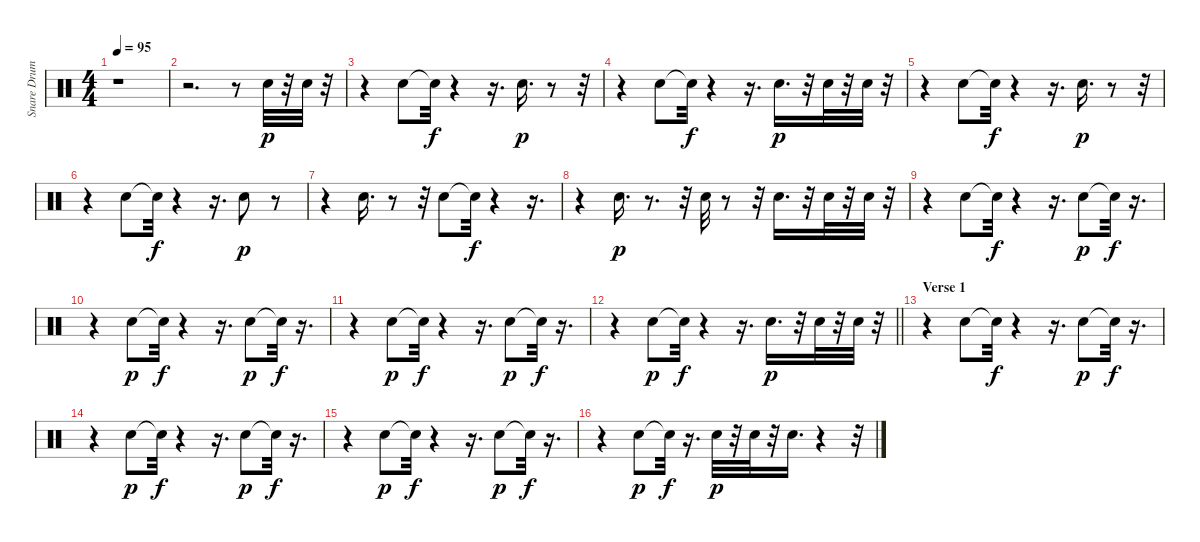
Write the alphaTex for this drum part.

\track ("Snare Drum" "Snare Drum") {instrument percussion}
\staff {score}
\articulation defaults
\ts (4 4)
\tempo 95
\clef neutral
\ks c
r.1{dy p} |
r.2{d} r.8 "Snare (hit) 2".32 r.32 "Snare (hit) 2".32 r.32 |
r.4 "Snare (hit) 2".8 "Snare (hit)"{t}.32{dy f} r.4 r.16{d} "Snare (hit) 2".16{d dy p} r.8 r.32 |
r.4 "Snare (hit) 2".8 "Snare (hit)"{t}.32{dy f} r.4 r.16{d} "Snare (hit) 2".16{d dy p} r.32 "Snare (hit) 2".32 r.32 "Snare (hit) 2".32 r.32 |
r.4 "Snare (hit) 2".8 "Snare (hit)"{t}.32{dy f} r.4 r.16{d} "Snare (hit) 2".16{d dy p} r.8 r.32 |
r.4 "Snare (hit) 2".8 "Snare (hit)"{t}.32{dy f} r.4 r.16{d} "Snare (hit) 2".8{dy p} r.8 |
r.4 "Snare (hit) 2".16{d} r.8 r.32 "Snare (hit) 2".8 "Snare (hit)"{t}.32{dy f} r.4 r.16{d} |
r.4 "Snare (hit) 2".16{d dy p} r.8{d} r.32 "Snare (hit) 2".32 r.8 r.32 "Snare (hit) 2".16{d} r.32 "Snare (hit) 2".32 r.32 "Snare (hit) 2".32 r.32 |
r.4 "Snare (hit) 2".8 "Snare (hit)"{t}.32{dy f} r.4 r.16{d} "Snare (hit) 2".8{dy p} "Snare (hit)"{t}.32{dy f} r.16{d} |
r.4 "Snare (hit) 2".8{dy p} "Snare (hit)"{t}.32{dy f} r.4 r.16{d} "Snare (hit) 2".8{dy p} "Snare (hit)"{t}.32{dy f} r.16{d} |
r.4 "Snare (hit) 2".8{dy p} "Snare (hit)"{t}.32{dy f} r.4 r.16{d} "Snare (hit) 2".8{dy p} "Snare (hit)"{t}.32{dy f} r.16{d} |
\barLineRight lightlight
r.4 "Snare (hit) 2".8{dy p} "Snare (hit)"{t}.32{dy f} r.4 r.16{d} "Snare (hit) 2".16{d dy p} r.32 "Snare (hit) 2".32 r.32 "Snare (hit) 2".32 r.32 |
\section ("" "Verse 1")
r.4 "Snare (hit) 2".8 "Snare (hit)"{t}.32{dy f} r.4 r.16{d} "Snare (hit) 2".8{dy p} "Snare (hit)"{t}.32{dy f} r.16{d} |
r.4 "Snare (hit) 2".8{dy p} "Snare (hit)"{t}.32{dy f} r.4 r.16{d} "Snare (hit) 2".8{dy p} "Snare (hit)"{t}.32{dy f} r.16{d} |
r.4 "Snare (hit) 2".8{dy p} "Snare (hit)"{t}.32{dy f} r.4 r.16{d} "Snare (hit) 2".8{dy p} "Snare (hit)"{t}.32{dy f} r.16{d} |
r.4 "Snare (hit) 2".8{dy p} "Snare (hit)"{t}.32{dy f} r.16{d} "Snare (hit) 2".32{dy p} r.32 "Snare (hit) 2".32 r.32 "Snare (hit) 2".16{d} r.4 r.32
